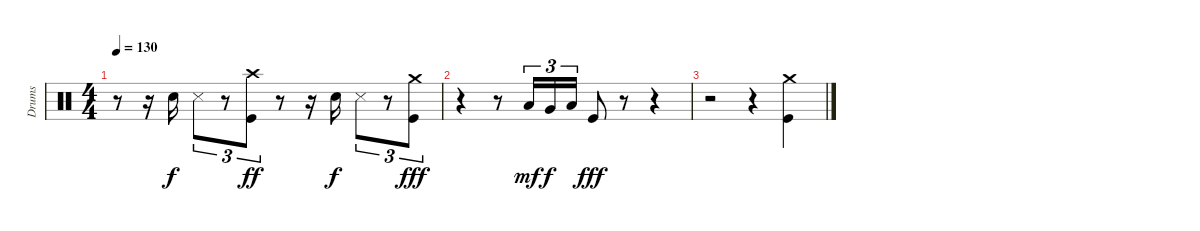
\track ("Drums" "Drums") {instrument percussion}
\staff {score}
\articulation defaults
\ts (4 4)
\tempo 130
\clef neutral
\ks c
r.8{dy ff} r.16 "Snare (hit) 2".16{dy f} "Snare (side stick) 3".8{tu (3 2)} r.8{tu (3 2)} ("Crash high (hit)" "Kick (hit)").8{tu (3 2) dy ff} r.8 r.16 "Snare (hit) 2".16{dy f} "Snare (side stick) 3".8{tu (3 2)} r.8{tu (3 2)} ("Crash medium (hit)" "Kick (hit)").8{tu (3 2) dy fff} |
r.4 r.8 "Low Tom (hit)".16{tu (3 2) dy mf} "Very Low Tom (hit)".16{tu (3 2) dy f} "Low Floor Tom (hit)".16{tu (3 2)} "Kick (hit)".8{dy fff} r.8 r.4 |
r.2 r.4 ("Crash medium (hit)" "Kick (hit)").4
